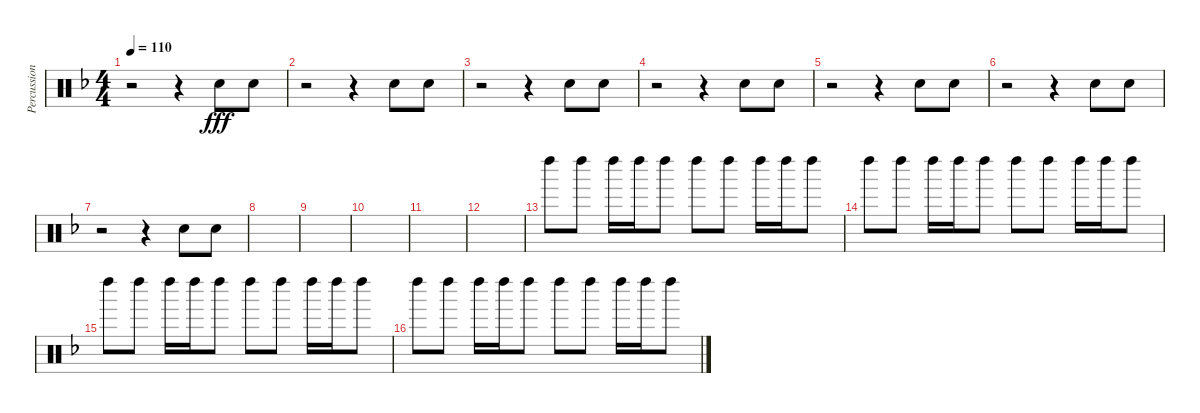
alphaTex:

\track ("Percussions" "Percussion") {instrument percussion}
\staff {score}
\articulation defaults
\ts (4 4)
\tempo 110
\clef neutral
\ks f
r.2{dy fff} r.4 "Hand Clap (hit)".8 "Hand Clap (hit)".8 |
r.2 r.4 "Hand Clap (hit)".8 "Hand Clap (hit)".8 |
r.2 r.4 "Hand Clap (hit)".8 "Hand Clap (hit)".8 |
r.2 r.4 "Hand Clap (hit)".8 "Hand Clap (hit)".8 |
r.2 r.4 "Hand Clap (hit)".8 "Hand Clap (hit)".8 |
r.2 r.4 "Hand Clap (hit)".8 "Hand Clap (hit)".8 |
r.2 r.4 "Hand Clap (hit)".8 "Hand Clap (hit)".8 |
|
|
|
|
|
"Left Maraca (hit)".8 "Left Maraca (hit)".8 "Left Maraca (hit)".16 "Left Maraca (hit)".16 "Left Maraca (hit)".8 "Left Maraca (hit)".8 "Left Maraca (hit)".8 "Left Maraca (hit)".16 "Left Maraca (hit)".16 "Left Maraca (hit)".8 |
"Left Maraca (hit)".8 "Left Maraca (hit)".8 "Left Maraca (hit)".16 "Left Maraca (hit)".16 "Left Maraca (hit)".8 "Left Maraca (hit)".8 "Left Maraca (hit)".8 "Left Maraca (hit)".16 "Left Maraca (hit)".16 "Left Maraca (hit)".8 |
"Left Maraca (hit)".8 "Left Maraca (hit)".8 "Left Maraca (hit)".16 "Left Maraca (hit)".16 "Left Maraca (hit)".8 "Left Maraca (hit)".8 "Left Maraca (hit)".8 "Left Maraca (hit)".16 "Left Maraca (hit)".16 "Left Maraca (hit)".8 |
"Left Maraca (hit)".8 "Left Maraca (hit)".8 "Left Maraca (hit)".16 "Left Maraca (hit)".16 "Left Maraca (hit)".8 "Left Maraca (hit)".8 "Left Maraca (hit)".8 "Left Maraca (hit)".16 "Left Maraca (hit)".16 "Left Maraca (hit)".8
